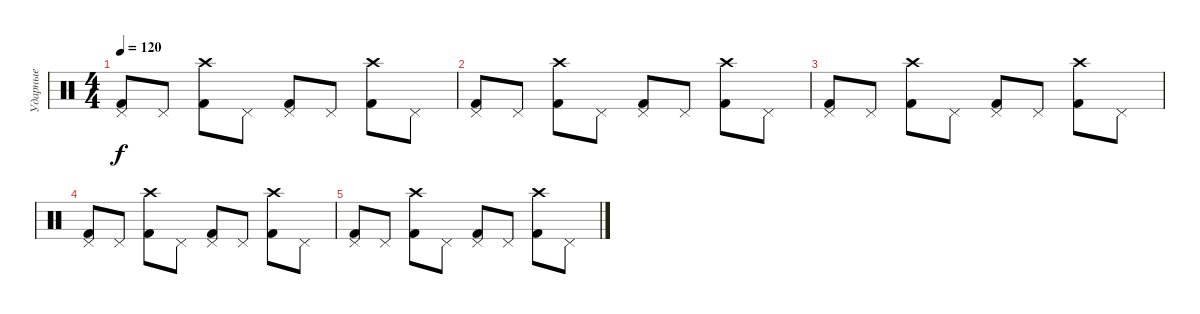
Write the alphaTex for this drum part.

\track ("Ударные" "Ударные") {instrument percussion}
\staff {score}
\articulation defaults
\ts (4 4)
\tempo 120
\clef neutral
\ks c
("Pedal Hi-Hat (hit)" "Kick (hit) 2").8{dy f} "Pedal Hi-Hat (hit)".8 ("Crash high (hit)" "Kick (hit) 2").8 "Pedal Hi-Hat (hit)".8 ("Pedal Hi-Hat (hit)" "Kick (hit) 2").8 "Pedal Hi-Hat (hit)".8 ("Crash high (hit)" "Kick (hit) 2").8 "Pedal Hi-Hat (hit)".8 |
("Pedal Hi-Hat (hit)" "Kick (hit) 2").8 "Pedal Hi-Hat (hit)".8 ("Crash high (hit)" "Kick (hit) 2").8 "Pedal Hi-Hat (hit)".8 ("Pedal Hi-Hat (hit)" "Kick (hit) 2").8 "Pedal Hi-Hat (hit)".8 ("Crash high (hit)" "Kick (hit) 2").8 "Pedal Hi-Hat (hit)".8 |
("Pedal Hi-Hat (hit)" "Kick (hit) 2").8 "Pedal Hi-Hat (hit)".8 ("Crash high (hit)" "Kick (hit) 2").8 "Pedal Hi-Hat (hit)".8 ("Pedal Hi-Hat (hit)" "Kick (hit) 2").8 "Pedal Hi-Hat (hit)".8 ("Crash high (hit)" "Kick (hit) 2").8 "Pedal Hi-Hat (hit)".8 |
("Pedal Hi-Hat (hit)" "Kick (hit) 2").8 "Pedal Hi-Hat (hit)".8 ("Crash high (hit)" "Kick (hit) 2").8 "Pedal Hi-Hat (hit)".8 ("Pedal Hi-Hat (hit)" "Kick (hit) 2").8 "Pedal Hi-Hat (hit)".8 ("Crash high (hit)" "Kick (hit) 2").8 "Pedal Hi-Hat (hit)".8 |
("Pedal Hi-Hat (hit)" "Kick (hit) 2").8 "Pedal Hi-Hat (hit)".8 ("Crash high (hit)" "Kick (hit) 2").8 "Pedal Hi-Hat (hit)".8 ("Pedal Hi-Hat (hit)" "Kick (hit) 2").8 "Pedal Hi-Hat (hit)".8 ("Crash high (hit)" "Kick (hit) 2").8 "Pedal Hi-Hat (hit)".8
